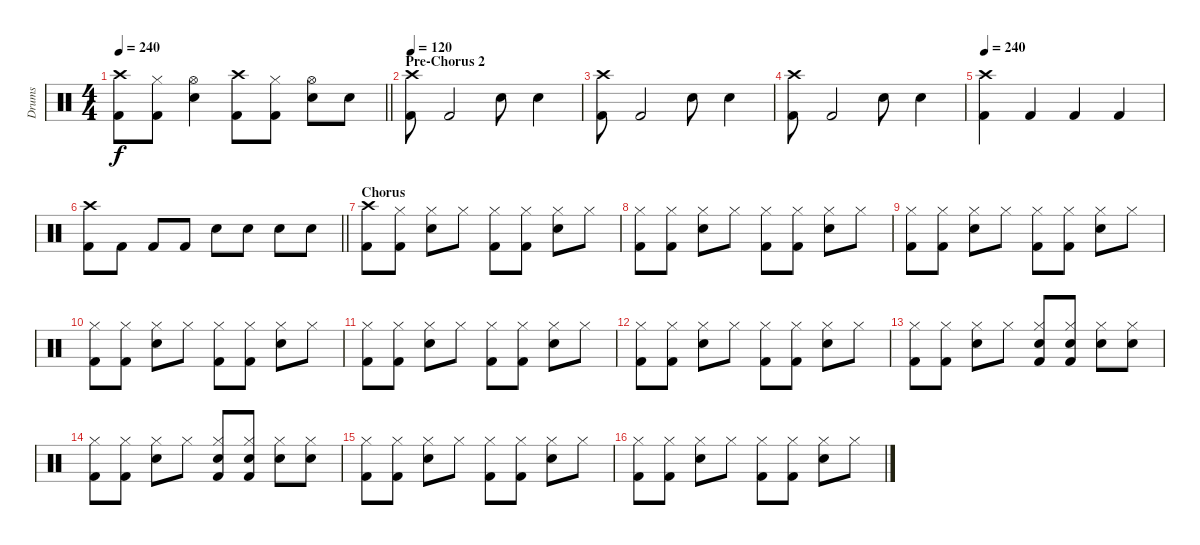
\track ("Drums" "Drums") {instrument percussion}
\staff {score}
\articulation defaults
\ts (4 4)
\tempo 240
\clef neutral
\barLineRight lightlight
\ks c
("Crash high (hit)" "Kick (hit) 2").8{dy f} ("Hi-Hat (closed)" "Kick (hit) 2").8 ("Hi-Hat (open)" "Snare (hit) 2").4 ("Crash high (hit)" "Kick (hit) 2").8 ("Hi-Hat (closed)" "Kick (hit) 2").8 ("Hi-Hat (open)" "Snare (hit) 2").8 "Snare (hit) 2".8 |
\section ("" "Pre-Chorus 2")
\tempo 120
("Crash high (hit)" "Kick (hit) 2").8 "Kick (hit) 2".2 "Snare (hit) 2".8 "Snare (hit) 2".4 |
("Crash high (hit)" "Kick (hit) 2").8 "Kick (hit) 2".2 "Snare (hit) 2".8 "Snare (hit) 2".4 |
("Crash high (hit)" "Kick (hit) 2").8 "Kick (hit) 2".2 "Snare (hit) 2".8 "Snare (hit) 2".4 |
\tempo 240
("Crash high (hit)" "Kick (hit) 2").4 "Kick (hit) 2".4 "Kick (hit) 2".4 "Kick (hit) 2".4 |
\barLineRight lightlight
("Crash high (hit)" "Kick (hit) 2").8 "Kick (hit) 2".8 "Kick (hit) 2".8 "Kick (hit) 2".8 "Snare (hit) 2".8 "Snare (hit) 2".8 "Snare (hit) 2".8 "Snare (hit) 2".8 |
\section ("" "Chorus")
("Crash high (hit)" "Kick (hit) 2").8 ("Hi-Hat (closed)" "Kick (hit) 2").8 ("Hi-Hat (closed)" "Snare (hit) 2").8 "Hi-Hat (closed)".8 ("Hi-Hat (closed)" "Kick (hit) 2").8 ("Hi-Hat (closed)" "Kick (hit) 2").8 ("Hi-Hat (closed)" "Snare (hit) 2").8 "Hi-Hat (closed)".8 |
("Hi-Hat (closed)" "Kick (hit) 2").8 ("Hi-Hat (closed)" "Kick (hit) 2").8 ("Hi-Hat (closed)" "Snare (hit) 2").8 "Hi-Hat (closed)".8 ("Hi-Hat (closed)" "Kick (hit) 2").8 ("Hi-Hat (closed)" "Kick (hit) 2").8 ("Hi-Hat (closed)" "Snare (hit) 2").8 "Hi-Hat (closed)".8 |
("Hi-Hat (closed)" "Kick (hit) 2").8 ("Hi-Hat (closed)" "Kick (hit) 2").8 ("Hi-Hat (closed)" "Snare (hit) 2").8 "Hi-Hat (closed)".8 ("Hi-Hat (closed)" "Kick (hit) 2").8 ("Hi-Hat (closed)" "Kick (hit) 2").8 ("Hi-Hat (closed)" "Snare (hit) 2").8 "Hi-Hat (closed)".8 |
("Hi-Hat (closed)" "Kick (hit) 2").8 ("Hi-Hat (closed)" "Kick (hit) 2").8 ("Hi-Hat (closed)" "Snare (hit) 2").8 "Hi-Hat (closed)".8 ("Hi-Hat (closed)" "Kick (hit) 2").8 ("Hi-Hat (closed)" "Kick (hit) 2").8 ("Hi-Hat (closed)" "Snare (hit) 2").8 "Hi-Hat (closed)".8 |
("Hi-Hat (closed)" "Kick (hit) 2").8 ("Hi-Hat (closed)" "Kick (hit) 2").8 ("Hi-Hat (closed)" "Snare (hit) 2").8 "Hi-Hat (closed)".8 ("Hi-Hat (closed)" "Kick (hit) 2").8 ("Hi-Hat (closed)" "Kick (hit) 2").8 ("Hi-Hat (closed)" "Snare (hit) 2").8 "Hi-Hat (closed)".8 |
("Hi-Hat (closed)" "Kick (hit) 2").8 ("Hi-Hat (closed)" "Kick (hit) 2").8 ("Hi-Hat (closed)" "Snare (hit) 2").8 "Hi-Hat (closed)".8 ("Hi-Hat (closed)" "Kick (hit) 2").8 ("Hi-Hat (closed)" "Kick (hit) 2").8 ("Hi-Hat (closed)" "Snare (hit) 2").8 "Hi-Hat (closed)".8 |
("Hi-Hat (closed)" "Kick (hit) 2").8 ("Hi-Hat (closed)" "Kick (hit) 2").8 ("Hi-Hat (closed)" "Snare (hit) 2").8 "Hi-Hat (closed)".8 ("Hi-Hat (closed)" "Snare (hit) 2" "Kick (hit) 2").8 ("Hi-Hat (closed)" "Snare (hit) 2" "Kick (hit) 2").8 ("Hi-Hat (closed)" "Snare (hit) 2").8 ("Hi-Hat (closed)" "Snare (hit) 2").8 |
("Hi-Hat (closed)" "Kick (hit) 2").8 ("Hi-Hat (closed)" "Kick (hit) 2").8 ("Hi-Hat (closed)" "Snare (hit) 2").8 "Hi-Hat (closed)".8 ("Hi-Hat (closed)" "Snare (hit) 2" "Kick (hit) 2").8 ("Hi-Hat (closed)" "Snare (hit) 2" "Kick (hit) 2").8 ("Hi-Hat (closed)" "Snare (hit) 2").8 ("Hi-Hat (closed)" "Snare (hit) 2").8 |
("Hi-Hat (closed)" "Kick (hit) 2").8 ("Hi-Hat (closed)" "Kick (hit) 2").8 ("Hi-Hat (closed)" "Snare (hit) 2").8 "Hi-Hat (closed)".8 ("Hi-Hat (closed)" "Kick (hit) 2").8 ("Hi-Hat (closed)" "Kick (hit) 2").8 ("Hi-Hat (closed)" "Snare (hit) 2").8 "Hi-Hat (closed)".8 |
("Hi-Hat (closed)" "Kick (hit) 2").8 ("Hi-Hat (closed)" "Kick (hit) 2").8 ("Hi-Hat (closed)" "Snare (hit) 2").8 "Hi-Hat (closed)".8 ("Hi-Hat (closed)" "Kick (hit) 2").8 ("Hi-Hat (closed)" "Kick (hit) 2").8 ("Hi-Hat (closed)" "Snare (hit) 2").8 "Hi-Hat (closed)".8
